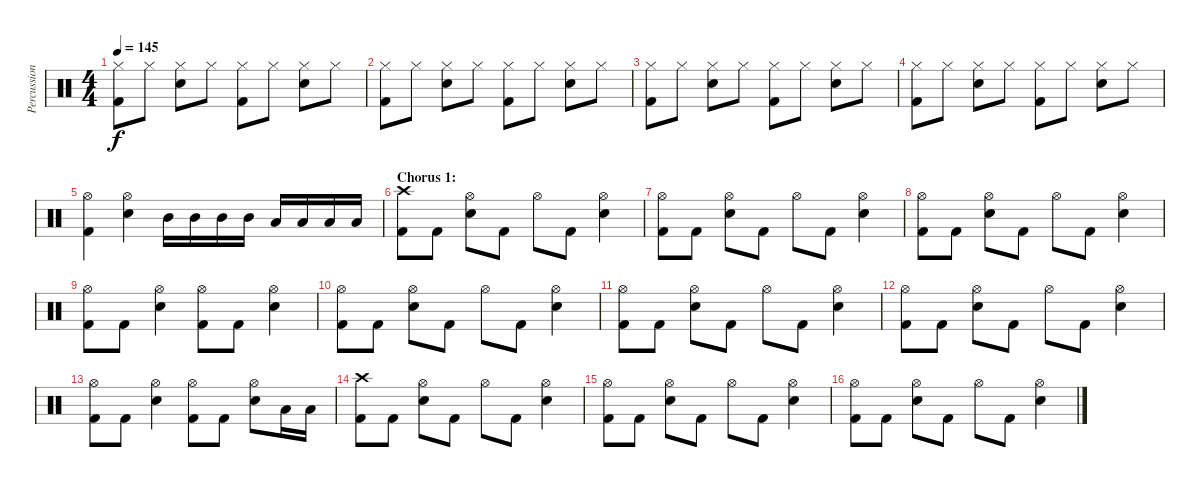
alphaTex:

\track ("Percussion" "Percussion") {instrument percussion}
\staff {score}
\articulation defaults
\ts (4 4)
\tempo 145
\clef neutral
\ks c
("Hi-Hat (closed)" "Kick (hit) 2").8{dy f} "Hi-Hat (closed)".8 ("Hi-Hat (closed)" "Snare (hit) 2").8 "Hi-Hat (closed)".8 ("Hi-Hat (closed)" "Kick (hit) 2").8 "Hi-Hat (closed)".8 ("Hi-Hat (closed)" "Snare (hit) 2").8 "Hi-Hat (closed)".8 |
("Hi-Hat (closed)" "Kick (hit) 2").8 "Hi-Hat (closed)".8 ("Hi-Hat (closed)" "Snare (hit) 2").8 "Hi-Hat (closed)".8 ("Hi-Hat (closed)" "Kick (hit) 2").8 "Hi-Hat (closed)".8 ("Hi-Hat (closed)" "Snare (hit) 2").8 "Hi-Hat (closed)".8 |
("Hi-Hat (closed)" "Kick (hit) 2").8 "Hi-Hat (closed)".8 ("Hi-Hat (closed)" "Snare (hit) 2").8 "Hi-Hat (closed)".8 ("Hi-Hat (closed)" "Kick (hit) 2").8 "Hi-Hat (closed)".8 ("Hi-Hat (closed)" "Snare (hit) 2").8 "Hi-Hat (closed)".8 |
("Hi-Hat (closed)" "Kick (hit) 2").8 "Hi-Hat (closed)".8 ("Hi-Hat (closed)" "Snare (hit) 2").8 "Hi-Hat (closed)".8 ("Hi-Hat (closed)" "Kick (hit) 2").8 "Hi-Hat (closed)".8 ("Hi-Hat (closed)" "Snare (hit) 2").8 "Hi-Hat (closed)".8 |
("Hi-Hat (open)" "Kick (hit) 2").4 ("Hi-Hat (open)" "Snare (hit) 2").4 "Mid Tom (hit)".16 "Mid Tom (hit)".16 "Mid Tom (hit)".16 "Mid Tom (hit)".16 "Low Tom (hit)".16 "Low Tom (hit)".16 "Low Tom (hit)".16 "Low Tom (hit)".16 |
\section ("" "Chorus 1:")
("Crash high (hit)" "Kick (hit) 2").8 "Kick (hit) 2".8 ("Hi-Hat (open)" "Snare (hit) 2").8 "Kick (hit) 2".8 "Hi-Hat (open)".8 "Kick (hit) 2".8 ("Hi-Hat (open)" "Snare (hit) 2").4 |
("Hi-Hat (open)" "Kick (hit) 2").8 "Kick (hit) 2".8 ("Hi-Hat (open)" "Snare (hit) 2").8 "Kick (hit) 2".8 "Hi-Hat (open)".8 "Kick (hit) 2".8 ("Hi-Hat (open)" "Snare (hit) 2").4 |
("Hi-Hat (open)" "Kick (hit) 2").8 "Kick (hit) 2".8 ("Hi-Hat (open)" "Snare (hit) 2").8 "Kick (hit) 2".8 "Hi-Hat (open)".8 "Kick (hit) 2".8 ("Hi-Hat (open)" "Snare (hit) 2").4 |
("Hi-Hat (open)" "Kick (hit) 2").8 "Kick (hit) 2".8 ("Hi-Hat (open)" "Snare (hit) 2").4 ("Hi-Hat (open)" "Kick (hit) 2").8 "Kick (hit) 2".8 ("Hi-Hat (open)" "Snare (hit) 2").4 |
("Hi-Hat (open)" "Kick (hit) 2").8 "Kick (hit) 2".8 ("Hi-Hat (open)" "Snare (hit) 2").8 "Kick (hit) 2".8 "Hi-Hat (open)".8 "Kick (hit) 2".8 ("Hi-Hat (open)" "Snare (hit) 2").4 |
("Hi-Hat (open)" "Kick (hit) 2").8 "Kick (hit) 2".8 ("Hi-Hat (open)" "Snare (hit) 2").8 "Kick (hit) 2".8 "Hi-Hat (open)".8 "Kick (hit) 2".8 ("Hi-Hat (open)" "Snare (hit) 2").4 |
("Hi-Hat (open)" "Kick (hit) 2").8 "Kick (hit) 2".8 ("Hi-Hat (open)" "Snare (hit) 2").8 "Kick (hit) 2".8 "Hi-Hat (open)".8 "Kick (hit) 2".8 ("Hi-Hat (open)" "Snare (hit) 2").4 |
("Hi-Hat (open)" "Kick (hit) 2").8 "Kick (hit) 2".8 ("Hi-Hat (open)" "Snare (hit) 2").4 ("Hi-Hat (open)" "Kick (hit) 2").8 "Kick (hit) 2".8 ("Hi-Hat (open)" "Snare (hit) 2").8 "Low Tom (hit)".16 "Low Tom (hit)".16 |
("Crash high (hit)" "Kick (hit) 2").8 "Kick (hit) 2".8 ("Hi-Hat (open)" "Snare (hit) 2").8 "Kick (hit) 2".8 "Hi-Hat (open)".8 "Kick (hit) 2".8 ("Hi-Hat (open)" "Snare (hit) 2").4 |
("Hi-Hat (open)" "Kick (hit) 2").8 "Kick (hit) 2".8 ("Hi-Hat (open)" "Snare (hit) 2").8 "Kick (hit) 2".8 "Hi-Hat (open)".8 "Kick (hit) 2".8 ("Hi-Hat (open)" "Snare (hit) 2").4 |
("Hi-Hat (open)" "Kick (hit) 2").8 "Kick (hit) 2".8 ("Hi-Hat (open)" "Snare (hit) 2").8 "Kick (hit) 2".8 "Hi-Hat (open)".8 "Kick (hit) 2".8 ("Hi-Hat (open)" "Snare (hit) 2").4
